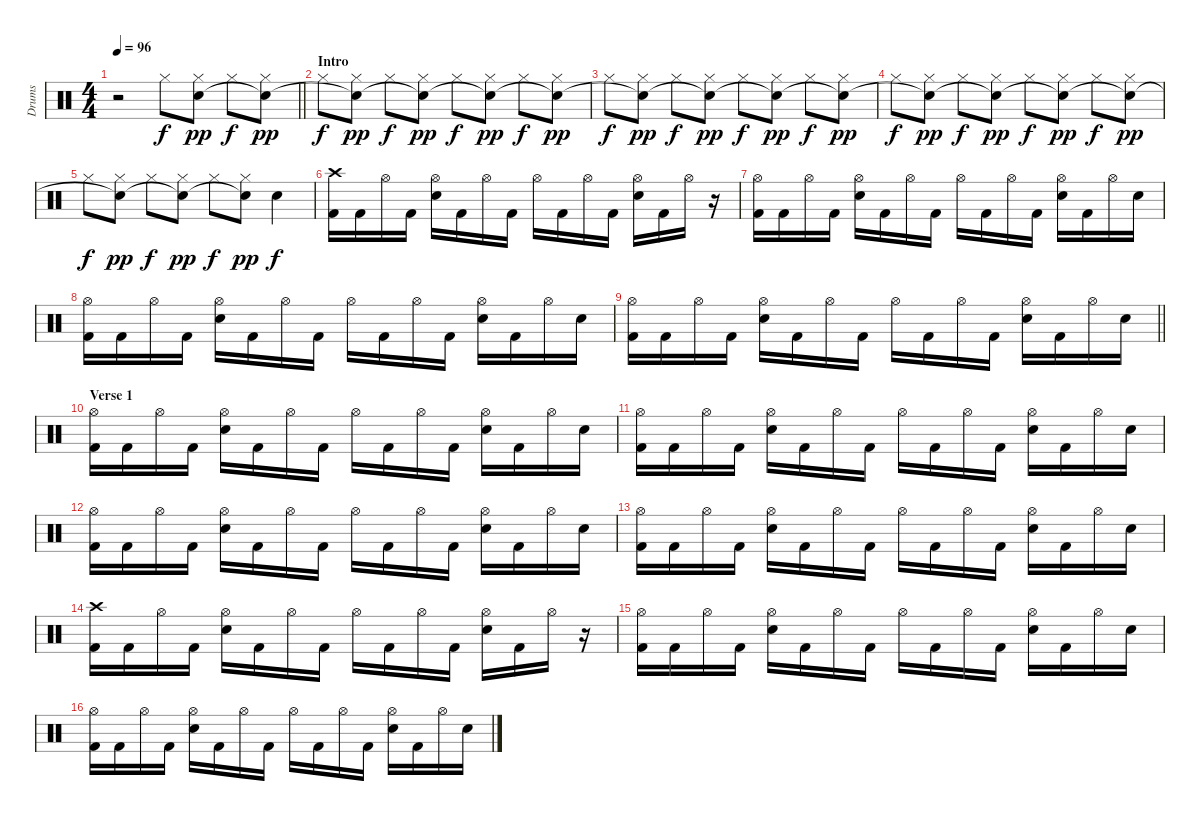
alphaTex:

\track ("Drums" "Drums") {instrument percussion}
\staff {score}
\articulation defaults
\ts (4 4)
\tempo 96
\clef neutral
\barLineRight lightlight
\ks c
r.2{dy f} "Hi-Hat (closed)".8 ("Hi-Hat (closed)" "Snare (hit)").8{dy pp} "Hi-Hat (closed)".8{dy f} ("Hi-Hat (closed)" "Snare (hit)"{t}).8{dy pp} |
\section ("" "Intro")
"Hi-Hat (closed)".8{dy f} ("Hi-Hat (closed)" "Snare (hit)"{t}).8{dy pp} "Hi-Hat (closed)".8{dy f} ("Hi-Hat (closed)" "Snare (hit)"{t}).8{dy pp} "Hi-Hat (closed)".8{dy f} ("Hi-Hat (closed)" "Snare (hit)"{t}).8{dy pp} "Hi-Hat (closed)".8{dy f} ("Hi-Hat (closed)" "Snare (hit)"{t}).8{dy pp} |
"Hi-Hat (closed)".8{dy f} ("Hi-Hat (closed)" "Snare (hit)"{t}).8{dy pp} "Hi-Hat (closed)".8{dy f} ("Hi-Hat (closed)" "Snare (hit)"{t}).8{dy pp} "Hi-Hat (closed)".8{dy f} ("Hi-Hat (closed)" "Snare (hit)"{t}).8{dy pp} "Hi-Hat (closed)".8{dy f} ("Hi-Hat (closed)" "Snare (hit)"{t}).8{dy pp} |
"Hi-Hat (closed)".8{dy f} ("Hi-Hat (closed)" "Snare (hit)"{t}).8{dy pp} "Hi-Hat (closed)".8{dy f} ("Hi-Hat (closed)" "Snare (hit)"{t}).8{dy pp} "Hi-Hat (closed)".8{dy f} ("Hi-Hat (closed)" "Snare (hit)"{t}).8{dy pp} "Hi-Hat (closed)".8{dy f} ("Hi-Hat (closed)" "Snare (hit)"{t}).8{dy pp} |
"Hi-Hat (closed)".8{dy f} ("Hi-Hat (closed)" "Snare (hit)"{t}).8{dy pp} "Hi-Hat (closed)".8{dy f} ("Hi-Hat (closed)" "Snare (hit)"{t}).8{dy pp} "Hi-Hat (closed)".8{dy f} ("Hi-Hat (closed)" "Snare (hit)"{t}).8{dy pp} "Electric Snare (hit)".4{dy f} |
("Crash high (hit)" "Kick (hit) 2").16 "Kick (hit) 2".16 "Hi-Hat (open)".16 "Kick (hit) 2".16 ("Hi-Hat (open)" "Electric Snare (hit)").16 "Kick (hit) 2".16 "Hi-Hat (open)".16 "Kick (hit) 2".16 "Hi-Hat (open)".16 "Kick (hit) 2".16 "Hi-Hat (open)".16 "Kick (hit) 2".16 ("Hi-Hat (open)" "Electric Snare (hit)").16 "Kick (hit) 2".16 "Hi-Hat (open)".16 r.16 |
("Hi-Hat (open)" "Kick (hit) 2").16 "Kick (hit) 2".16 "Hi-Hat (open)".16 "Kick (hit) 2".16 ("Hi-Hat (open)" "Electric Snare (hit)").16 "Kick (hit) 2".16 "Hi-Hat (open)".16 "Kick (hit) 2".16 "Hi-Hat (open)".16 "Kick (hit) 2".16 "Hi-Hat (open)".16 "Kick (hit) 2".16 ("Hi-Hat (open)" "Electric Snare (hit)").16 "Kick (hit) 2".16 "Hi-Hat (open)".16 "Electric Snare (hit)".16 |
("Hi-Hat (open)" "Kick (hit) 2").16 "Kick (hit) 2".16 "Hi-Hat (open)".16 "Kick (hit) 2".16 ("Hi-Hat (open)" "Electric Snare (hit)").16 "Kick (hit) 2".16 "Hi-Hat (open)".16 "Kick (hit) 2".16 "Hi-Hat (open)".16 "Kick (hit) 2".16 "Hi-Hat (open)".16 "Kick (hit) 2".16 ("Hi-Hat (open)" "Electric Snare (hit)").16 "Kick (hit) 2".16 "Hi-Hat (open)".16 "Electric Snare (hit)".16 |
\barLineRight lightlight
("Hi-Hat (open)" "Kick (hit) 2").16 "Kick (hit) 2".16 "Hi-Hat (open)".16 "Kick (hit) 2".16 ("Hi-Hat (open)" "Electric Snare (hit)").16 "Kick (hit) 2".16 "Hi-Hat (open)".16 "Kick (hit) 2".16 "Hi-Hat (open)".16 "Kick (hit) 2".16 "Hi-Hat (open)".16 "Kick (hit) 2".16 ("Hi-Hat (open)" "Electric Snare (hit)").16 "Kick (hit) 2".16 "Hi-Hat (open)".16 "Electric Snare (hit)".16 |
\section ("" "Verse 1")
("Hi-Hat (open)" "Kick (hit) 2").16 "Kick (hit) 2".16 "Hi-Hat (open)".16 "Kick (hit) 2".16 ("Hi-Hat (open)" "Electric Snare (hit)").16 "Kick (hit) 2".16 "Hi-Hat (open)".16 "Kick (hit) 2".16 "Hi-Hat (open)".16 "Kick (hit) 2".16 "Hi-Hat (open)".16 "Kick (hit) 2".16 ("Hi-Hat (open)" "Electric Snare (hit)").16 "Kick (hit) 2".16 "Hi-Hat (open)".16 "Electric Snare (hit)".16 |
("Hi-Hat (open)" "Kick (hit) 2").16 "Kick (hit) 2".16 "Hi-Hat (open)".16 "Kick (hit) 2".16 ("Hi-Hat (open)" "Electric Snare (hit)").16 "Kick (hit) 2".16 "Hi-Hat (open)".16 "Kick (hit) 2".16 "Hi-Hat (open)".16 "Kick (hit) 2".16 "Hi-Hat (open)".16 "Kick (hit) 2".16 ("Hi-Hat (open)" "Electric Snare (hit)").16 "Kick (hit) 2".16 "Hi-Hat (open)".16 "Electric Snare (hit)".16 |
("Hi-Hat (open)" "Kick (hit) 2").16 "Kick (hit) 2".16 "Hi-Hat (open)".16 "Kick (hit) 2".16 ("Hi-Hat (open)" "Electric Snare (hit)").16 "Kick (hit) 2".16 "Hi-Hat (open)".16 "Kick (hit) 2".16 "Hi-Hat (open)".16 "Kick (hit) 2".16 "Hi-Hat (open)".16 "Kick (hit) 2".16 ("Hi-Hat (open)" "Electric Snare (hit)").16 "Kick (hit) 2".16 "Hi-Hat (open)".16 "Electric Snare (hit)".16 |
("Hi-Hat (open)" "Kick (hit) 2").16 "Kick (hit) 2".16 "Hi-Hat (open)".16 "Kick (hit) 2".16 ("Hi-Hat (open)" "Electric Snare (hit)").16 "Kick (hit) 2".16 "Hi-Hat (open)".16 "Kick (hit) 2".16 "Hi-Hat (open)".16 "Kick (hit) 2".16 "Hi-Hat (open)".16 "Kick (hit) 2".16 ("Hi-Hat (open)" "Electric Snare (hit)").16 "Kick (hit) 2".16 "Hi-Hat (open)".16 "Electric Snare (hit)".16 |
("Crash high (hit)" "Kick (hit) 2").16 "Kick (hit) 2".16 "Hi-Hat (open)".16 "Kick (hit) 2".16 ("Hi-Hat (open)" "Electric Snare (hit)").16 "Kick (hit) 2".16 "Hi-Hat (open)".16 "Kick (hit) 2".16 "Hi-Hat (open)".16 "Kick (hit) 2".16 "Hi-Hat (open)".16 "Kick (hit) 2".16 ("Hi-Hat (open)" "Electric Snare (hit)").16 "Kick (hit) 2".16 "Hi-Hat (open)".16 r.16 |
("Hi-Hat (open)" "Kick (hit) 2").16 "Kick (hit) 2".16 "Hi-Hat (open)".16 "Kick (hit) 2".16 ("Hi-Hat (open)" "Electric Snare (hit)").16 "Kick (hit) 2".16 "Hi-Hat (open)".16 "Kick (hit) 2".16 "Hi-Hat (open)".16 "Kick (hit) 2".16 "Hi-Hat (open)".16 "Kick (hit) 2".16 ("Hi-Hat (open)" "Electric Snare (hit)").16 "Kick (hit) 2".16 "Hi-Hat (open)".16 "Electric Snare (hit)".16 |
("Hi-Hat (open)" "Kick (hit) 2").16 "Kick (hit) 2".16 "Hi-Hat (open)".16 "Kick (hit) 2".16 ("Hi-Hat (open)" "Electric Snare (hit)").16 "Kick (hit) 2".16 "Hi-Hat (open)".16 "Kick (hit) 2".16 "Hi-Hat (open)".16 "Kick (hit) 2".16 "Hi-Hat (open)".16 "Kick (hit) 2".16 ("Hi-Hat (open)" "Electric Snare (hit)").16 "Kick (hit) 2".16 "Hi-Hat (open)".16 "Electric Snare (hit)".16
